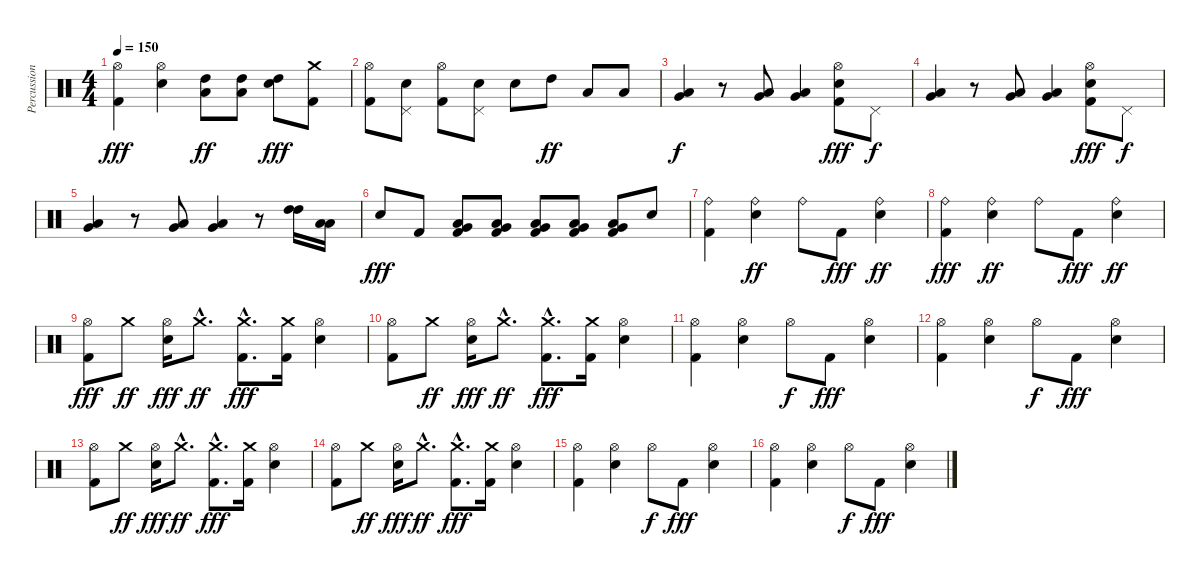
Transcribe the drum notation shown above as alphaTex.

\track ("Percussions" "Percussion") {instrument percussion}
\staff {score}
\articulation defaults
\ts (4 4)
\tempo 150
\clef neutral
\ks c
("Hi-Hat (open)" "Kick (hit) 2").4{dy fff} ("Hi-Hat (open)" "Electric Snare (hit)").4 ("High Tom (hit)" "Low Tom (hit)").8{dy ff} ("High Tom (hit)" "Low Tom (hit)").8 ("High Tom (hit)" "Electric Snare (hit)").8{dy fff} ("Crash medium (hit)" "Kick (hit) 2").8 |
("Hi-Hat (open)" "Kick (hit) 2").8 ("Pedal Hi-Hat (hit)" "Electric Snare (hit)").8 ("Hi-Hat (open)" "Kick (hit) 2").8 ("Pedal Hi-Hat (hit)" "Electric Snare (hit)").8 "Electric Snare (hit)".8 "High Tom (hit)".8{dy ff} "Low Tom (hit)".8 "Low Floor Tom (hit)".8 |
("Very Low Tom (hit)" "Low Floor Tom (hit)").4{dy f} r.8 ("Very Low Tom (hit)" "Low Floor Tom (hit)").8 ("Very Low Tom (hit)" "Low Floor Tom (hit)").4 ("Hi-Hat (open)" "Electric Snare (hit)" "Kick (hit) 2").8{dy fff} "Pedal Hi-Hat (hit)".8{dy f} |
("Very Low Tom (hit)" "Low Floor Tom (hit)").4 r.8 ("Very Low Tom (hit)" "Low Floor Tom (hit)").8 ("Very Low Tom (hit)" "Low Floor Tom (hit)").4 ("Hi-Hat (open)" "Electric Snare (hit)" "Kick (hit) 2").8{dy fff} "Pedal Hi-Hat (hit)".8{dy f} |
("Very Low Tom (hit)" "Low Floor Tom (hit)").4 r.8 ("Very Low Tom (hit)" "Low Floor Tom (hit)").8 ("Very Low Tom (hit)" "Low Floor Tom (hit)").4 r.8 ("High Tom (hit)" "High Tom (hit)").16 ("Low Tom (hit)" "Low Tom (hit)").16 |
"Electric Snare (hit)".8{dy fff} "Kick (hit) 2".8 ("Very Low Tom (hit)" "Low Floor Tom (hit)" "Kick (hit) 2").8 ("Very Low Tom (hit)" "Low Floor Tom (hit)" "Kick (hit) 2").8 ("Very Low Tom (hit)" "Low Floor Tom (hit)" "Kick (hit) 2").8 ("Very Low Tom (hit)" "Low Floor Tom (hit)" "Kick (hit) 2").8 ("Very Low Tom (hit)" "Low Floor Tom (hit)" "Kick (hit) 2").8 "Electric Snare (hit)".8 |
("Ride (bell)" "Kick (hit) 2").4 ("Ride (bell)" "Electric Snare (hit)").4{dy ff} "Ride (bell)".8 "Kick (hit) 2".8{dy fff} ("Ride (bell)" "Electric Snare (hit)").4{dy ff} |
("Ride (bell)" "Kick (hit) 2").4{dy fff} ("Ride (bell)" "Electric Snare (hit)").4{dy ff} "Ride (bell)".8 "Kick (hit) 2".8{dy fff} ("Ride (bell)" "Electric Snare (hit)").4{dy ff} |
("Hi-Hat (open)" "Kick (hit) 2").8{dy fff} "Crash medium (hit)".8{dy ff} ("Hi-Hat (open)" "Electric Snare (hit)").16{dy fff} "Crash medium (hit)"{hac}.8{d dy ff} ("Crash medium (hit)"{hac} "Kick (hit) 2"{hac}).8{d dy fff} ("Crash medium (hit)" "Kick (hit) 2").16 ("Hi-Hat (open)" "Electric Snare (hit)").4 |
("Hi-Hat (open)" "Kick (hit) 2").8 "Crash medium (hit)".8{dy ff} ("Hi-Hat (open)" "Electric Snare (hit)").16{dy fff} "Crash medium (hit)"{hac}.8{d dy ff} ("Crash medium (hit)"{hac} "Kick (hit) 2"{hac}).8{d dy fff} ("Crash medium (hit)" "Kick (hit) 2").16 ("Hi-Hat (open)" "Electric Snare (hit)").4 |
("Hi-Hat (open)" "Kick (hit) 2").4 ("Hi-Hat (open)" "Electric Snare (hit)").4 "Hi-Hat (open)".8{dy f} "Kick (hit) 2".8{dy fff} ("Hi-Hat (open)" "Electric Snare (hit)").4 |
("Hi-Hat (open)" "Kick (hit) 2").4 ("Hi-Hat (open)" "Electric Snare (hit)").4 "Hi-Hat (open)".8{dy f} "Kick (hit) 2".8{dy fff} ("Hi-Hat (open)" "Electric Snare (hit)").4 |
("Hi-Hat (open)" "Kick (hit) 2").8 "Crash medium (hit)".8{dy ff} ("Hi-Hat (open)" "Electric Snare (hit)").16{dy fff} "Crash medium (hit)"{hac}.8{d dy ff} ("Crash medium (hit)"{hac} "Kick (hit) 2"{hac}).8{d dy fff} ("Crash medium (hit)" "Kick (hit) 2").16 ("Hi-Hat (open)" "Electric Snare (hit)").4 |
("Hi-Hat (open)" "Kick (hit) 2").8 "Crash medium (hit)".8{dy ff} ("Hi-Hat (open)" "Electric Snare (hit)").16{dy fff} "Crash medium (hit)"{hac}.8{d dy ff} ("Crash medium (hit)"{hac} "Kick (hit) 2"{hac}).8{d dy fff} ("Crash medium (hit)" "Kick (hit) 2").16 ("Hi-Hat (open)" "Electric Snare (hit)").4 |
("Hi-Hat (open)" "Kick (hit) 2").4 ("Hi-Hat (open)" "Electric Snare (hit)").4 "Hi-Hat (open)".8{dy f} "Kick (hit) 2".8{dy fff} ("Hi-Hat (open)" "Electric Snare (hit)").4 |
("Hi-Hat (open)" "Kick (hit) 2").4 ("Hi-Hat (open)" "Electric Snare (hit)").4 "Hi-Hat (open)".8{dy f} "Kick (hit) 2".8{dy fff} ("Hi-Hat (open)" "Electric Snare (hit)").4
